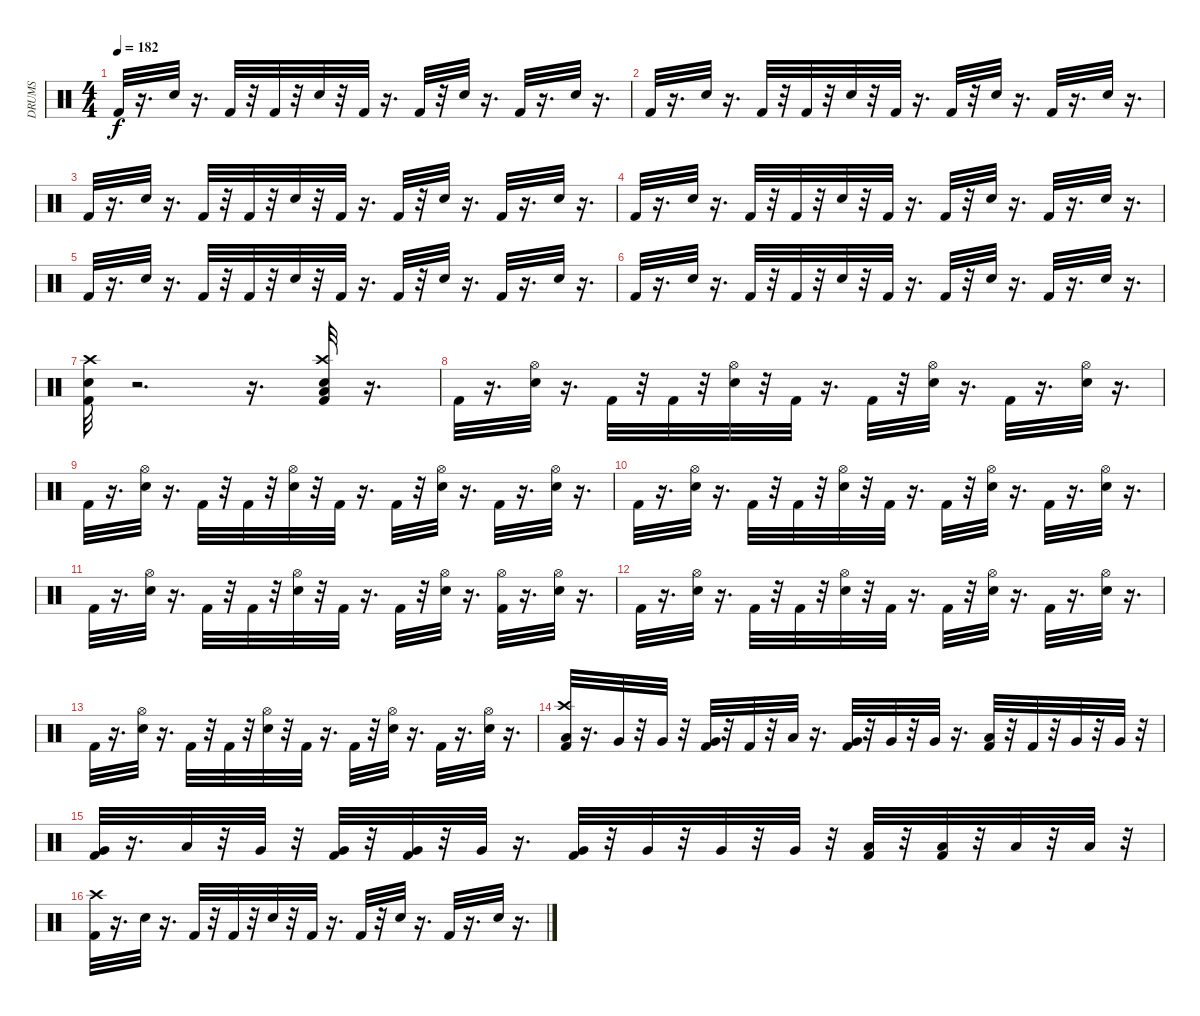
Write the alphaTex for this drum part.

\track ("DRUMS" "DRUMS") {instrument percussion}
\staff {score}
\articulation defaults
\ts (4 4)
\tempo 182
\clef neutral
\ks c "Kick (hit) 2".32{dy f}
r.16{d} "Electric Snare (hit)".32 r.16{d} "Kick (hit) 2".32 r.32 "Kick (hit) 2".32 r.32 "Electric Snare (hit)".32 r.32 "Kick (hit) 2".32 r.16{d} "Kick (hit) 2".32 r.32 "Electric Snare (hit)".32 r.16{d} "Kick (hit) 2".32 r.16{d} "Electric Snare (hit)".32 r.16{d} |
"Kick (hit) 2".32 r.16{d} "Electric Snare (hit)".32 r.16{d} "Kick (hit) 2".32 r.32 "Kick (hit) 2".32 r.32 "Electric Snare (hit)".32 r.32 "Kick (hit) 2".32 r.16{d} "Kick (hit) 2".32 r.32 "Electric Snare (hit)".32 r.16{d} "Kick (hit) 2".32 r.16{d} "Electric Snare (hit)".32 r.16{d} |
"Kick (hit) 2".32 r.16{d} "Electric Snare (hit)".32 r.16{d} "Kick (hit) 2".32 r.32 "Kick (hit) 2".32 r.32 "Electric Snare (hit)".32 r.32 "Kick (hit) 2".32 r.16{d} "Kick (hit) 2".32 r.32 "Electric Snare (hit)".32 r.16{d} "Kick (hit) 2".32 r.16{d} "Electric Snare (hit)".32 r.16{d} |
"Kick (hit) 2".32 r.16{d} "Electric Snare (hit)".32 r.16{d} "Kick (hit) 2".32 r.32 "Kick (hit) 2".32 r.32 "Electric Snare (hit)".32 r.32 "Kick (hit) 2".32 r.16{d} "Kick (hit) 2".32 r.32 "Electric Snare (hit)".32 r.16{d} "Kick (hit) 2".32 r.16{d} "Electric Snare (hit)".32 r.16{d} |
"Kick (hit) 2".32 r.16{d} "Electric Snare (hit)".32 r.16{d} "Kick (hit) 2".32 r.32 "Kick (hit) 2".32 r.32 "Electric Snare (hit)".32 r.32 "Kick (hit) 2".32 r.16{d} "Kick (hit) 2".32 r.32 "Electric Snare (hit)".32 r.16{d} "Kick (hit) 2".32 r.16{d} "Electric Snare (hit)".32 r.16{d} |
"Kick (hit) 2".32 r.16{d} "Electric Snare (hit)".32 r.16{d} "Kick (hit) 2".32 r.32 "Kick (hit) 2".32 r.32 "Electric Snare (hit)".32 r.32 "Kick (hit) 2".32 r.16{d} "Kick (hit) 2".32 r.32 "Electric Snare (hit)".32 r.16{d} "Kick (hit) 2".32 r.16{d} "Electric Snare (hit)".32 r.16{d} |
("Kick (hit) 2" "Crash high (hit)" "Electric Snare (hit)").32 r.2{d} r.16{d} ("Crash high (hit)" "Kick (hit) 2" "Electric Snare (hit)" "Low Floor Tom (hit)").32 r.16{d} |
"Kick (hit) 2".32 r.16{d} ("Electric Snare (hit)" "Hi-Hat (open)").32 r.16{d} "Kick (hit) 2".32 r.32 "Kick (hit) 2".32 r.32 ("Electric Snare (hit)" "Hi-Hat (open)").32 r.32 "Kick (hit) 2".32 r.16{d} "Kick (hit) 2".32 r.32 ("Electric Snare (hit)" "Hi-Hat (open)").32 r.16{d} "Kick (hit) 2".32 r.16{d} ("Electric Snare (hit)" "Hi-Hat (open)").32 r.16{d} |
"Kick (hit) 2".32 r.16{d} ("Electric Snare (hit)" "Hi-Hat (open)").32 r.16{d} "Kick (hit) 2".32 r.32 "Kick (hit) 2".32 r.32 ("Electric Snare (hit)" "Hi-Hat (open)").32 r.32 "Kick (hit) 2".32 r.16{d} "Kick (hit) 2".32 r.32 ("Electric Snare (hit)" "Hi-Hat (open)").32 r.16{d} "Kick (hit) 2".32 r.16{d} ("Electric Snare (hit)" "Hi-Hat (open)").32 r.16{d} |
"Kick (hit) 2".32 r.16{d} ("Electric Snare (hit)" "Hi-Hat (open)").32 r.16{d} "Kick (hit) 2".32 r.32 "Kick (hit) 2".32 r.32 ("Electric Snare (hit)" "Hi-Hat (open)").32 r.32 "Kick (hit) 2".32 r.16{d} "Kick (hit) 2".32 r.32 ("Electric Snare (hit)" "Hi-Hat (open)").32 r.16{d} "Kick (hit) 2".32 r.16{d} ("Electric Snare (hit)" "Hi-Hat (open)").32 r.16{d} |
"Kick (hit) 2".32 r.16{d} ("Electric Snare (hit)" "Hi-Hat (open)").32 r.16{d} "Kick (hit) 2".32 r.32 "Kick (hit) 2".32 r.32 ("Electric Snare (hit)" "Hi-Hat (open)").32 r.32 "Kick (hit) 2".32 r.16{d} "Kick (hit) 2".32 r.32 ("Electric Snare (hit)" "Hi-Hat (open)").32 r.16{d} ("Kick (hit) 2" "Hi-Hat (open)").32 r.16{d} ("Electric Snare (hit)" "Hi-Hat (open)").32 r.16{d} |
"Kick (hit) 2".32 r.16{d} ("Electric Snare (hit)" "Hi-Hat (open)").32 r.16{d} "Kick (hit) 2".32 r.32 "Kick (hit) 2".32 r.32 ("Electric Snare (hit)" "Hi-Hat (open)").32 r.32 "Kick (hit) 2".32 r.16{d} "Kick (hit) 2".32 r.32 ("Electric Snare (hit)" "Hi-Hat (open)").32 r.16{d} "Kick (hit) 2".32 r.16{d} ("Electric Snare (hit)" "Hi-Hat (open)").32 r.16{d} |
"Kick (hit) 2".32 r.16{d} ("Electric Snare (hit)" "Hi-Hat (open)").32 r.16{d} "Kick (hit) 2".32 r.32 "Kick (hit) 2".32 r.32 ("Electric Snare (hit)" "Hi-Hat (open)").32 r.32 "Kick (hit) 2".32 r.16{d} "Kick (hit) 2".32 r.32 ("Electric Snare (hit)" "Hi-Hat (open)").32 r.16{d} "Kick (hit) 2".32 r.16{d} ("Electric Snare (hit)" "Hi-Hat (open)").32 r.16{d} |
("Kick (hit) 2" "Crash high (hit)" "Low Tom (hit)").32 r.16{d} "Very Low Tom (hit)".32 r.32 "Very Low Tom (hit)".32 r.32 ("Kick (hit) 2" "Very Low Tom (hit)").32 r.32 "Kick (hit) 2".32 r.32 "Low Tom (hit)".32 r.16{d} ("Kick (hit) 2" "Very Low Tom (hit)").32 r.32 "Very Low Tom (hit)".32 r.32 "Very Low Tom (hit)".32 r.16{d} ("Kick (hit) 2" "Low Tom (hit)").32 r.32 "Kick (hit) 2".32 r.32 "Very Low Tom (hit)".32 r.32 "Very Low Tom (hit)".32 r.32 |
("Kick (hit) 2" "Very Low Tom (hit)").32 r.16{d} "Low Tom (hit)".32 r.32 "Very Low Tom (hit)".32 r.32 ("Kick (hit) 2" "Very Low Tom (hit)").32 r.32 ("Kick (hit) 2" "Very Low Tom (hit)").32 r.32 "Very Low Tom (hit)".32 r.16{d} ("Kick (hit) 2" "Very Low Tom (hit)").32 r.32 "Very Low Tom (hit)".32 r.32 "Very Low Tom (hit)".32 r.32 "Very Low Tom (hit)".32 r.32 ("Kick (hit) 2" "Low Floor Tom (hit)").32 r.32 ("Kick (hit) 2" "Low Floor Tom (hit)").32 r.32 "Low Floor Tom (hit)".32 r.32 "Low Floor Tom (hit)".32 r.32 |
("Kick (hit) 2" "Crash high (hit)").32 r.16{d} "Electric Snare (hit)".32 r.16{d} "Kick (hit) 2".32 r.32 "Kick (hit) 2".32 r.32 "Electric Snare (hit)".32 r.32 "Kick (hit) 2".32 r.16{d} "Kick (hit) 2".32 r.32 "Electric Snare (hit)".32 r.16{d} "Kick (hit) 2".32 r.16{d} "Electric Snare (hit)".32 r.16{d}
